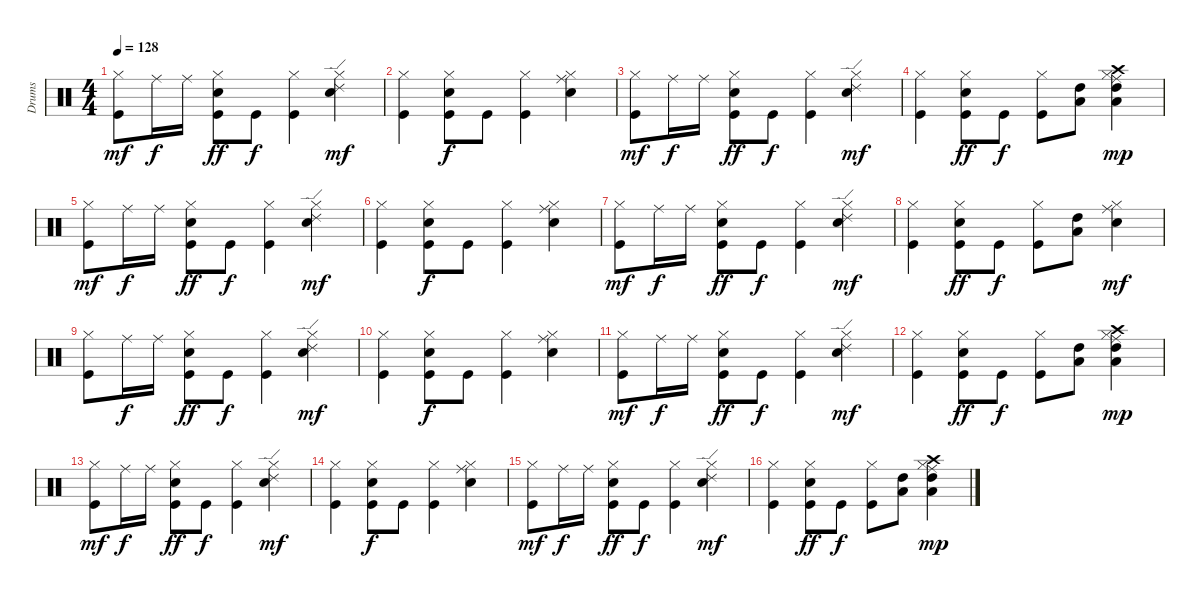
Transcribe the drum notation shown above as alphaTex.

\track ("Drums               " "Drums     ") {instrument percussion}
\staff {score}
\articulation defaults
\ts (4 4)
\tempo 128
\clef neutral
\ks c
("Hi-Hat (closed)" "Kick (hit)").8{dy mf} "Ride (middle)".16{dy f} "Ride (middle)".16 ("Hi-Hat (closed)" "Electric Snare (hit)" "Kick (hit)").8{dy ff} "Kick (hit)".8{dy f} ("Hi-Hat (closed)" "Kick (hit)").4 ("Ride (edge) 2" "Hi-Hat (closed)" "Electric Snare (hit)").4{dy mf} |
("Hi-Hat (closed)" "Kick (hit)").4 ("Hi-Hat (closed)" "Electric Snare (hit)" "Kick (hit)").8{dy f} "Kick (hit)".8 ("Hi-Hat (closed)" "Kick (hit)").4 ("Ride (middle)" "Hi-Hat (closed)" "Electric Snare (hit)").4 |
("Hi-Hat (closed)" "Kick (hit)").8{dy mf} "Ride (middle)".16{dy f} "Ride (middle)".16 ("Hi-Hat (closed)" "Electric Snare (hit)" "Kick (hit)").8{dy ff} "Kick (hit)".8{dy f} ("Hi-Hat (closed)" "Kick (hit)").4 ("Ride (edge) 2" "Hi-Hat (closed)" "Electric Snare (hit)").4{dy mf} |
("Hi-Hat (closed)" "Kick (hit)").4 ("Hi-Hat (closed)" "Electric Snare (hit)" "Kick (hit)").8{dy ff} "Kick (hit)".8{dy f} ("Hi-Hat (closed)" "Kick (hit)").8 ("High Tom (hit)" "Low Tom (hit)").8 ("Ride (middle)" "Hi-Hat (closed)" "High Tom (hit)" "Low Tom (hit)" "Crash high (hit)").4{dy mp} |
("Hi-Hat (closed)" "Kick (hit)").8{dy mf} "Ride (middle)".16{dy f} "Ride (middle)".16 ("Hi-Hat (closed)" "Electric Snare (hit)" "Kick (hit)").8{dy ff} "Kick (hit)".8{dy f} ("Hi-Hat (closed)" "Kick (hit)").4 ("Ride (edge) 2" "Hi-Hat (closed)" "Electric Snare (hit)").4{dy mf} |
("Hi-Hat (closed)" "Kick (hit)").4 ("Hi-Hat (closed)" "Electric Snare (hit)" "Kick (hit)").8{dy f} "Kick (hit)".8 ("Hi-Hat (closed)" "Kick (hit)").4 ("Ride (middle)" "Hi-Hat (closed)" "Electric Snare (hit)").4 |
("Hi-Hat (closed)" "Kick (hit)").8{dy mf} "Ride (middle)".16{dy f} "Ride (middle)".16 ("Hi-Hat (closed)" "Electric Snare (hit)" "Kick (hit)").8{dy ff} "Kick (hit)".8{dy f} ("Hi-Hat (closed)" "Kick (hit)").4 ("Ride (edge) 2" "Hi-Hat (closed)" "Electric Snare (hit)").4{dy mf} |
("Hi-Hat (closed)" "Kick (hit)").4 ("Hi-Hat (closed)" "Electric Snare (hit)" "Kick (hit)").8{dy ff} "Kick (hit)".8{dy f} ("Hi-Hat (closed)" "Kick (hit)").8 ("High Tom (hit)" "Low Tom (hit)").8 ("Ride (middle)" "Hi-Hat (closed)" "Electric Snare (hit)").4{dy mf} |
("Hi-Hat (closed)" "Kick (hit)").8 "Ride (middle)".16{dy f} "Ride (middle)".16 ("Hi-Hat (closed)" "Electric Snare (hit)" "Kick (hit)").8{dy ff} "Kick (hit)".8{dy f} ("Hi-Hat (closed)" "Kick (hit)").4 ("Ride (edge) 2" "Hi-Hat (closed)" "Electric Snare (hit)").4{dy mf} |
("Hi-Hat (closed)" "Kick (hit)").4 ("Hi-Hat (closed)" "Electric Snare (hit)" "Kick (hit)").8{dy f} "Kick (hit)".8 ("Hi-Hat (closed)" "Kick (hit)").4 ("Ride (middle)" "Hi-Hat (closed)" "Electric Snare (hit)").4 |
("Hi-Hat (closed)" "Kick (hit)").8{dy mf} "Ride (middle)".16{dy f} "Ride (middle)".16 ("Hi-Hat (closed)" "Electric Snare (hit)" "Kick (hit)").8{dy ff} "Kick (hit)".8{dy f} ("Hi-Hat (closed)" "Kick (hit)").4 ("Ride (edge) 2" "Hi-Hat (closed)" "Electric Snare (hit)").4{dy mf} |
("Hi-Hat (closed)" "Kick (hit)").4 ("Hi-Hat (closed)" "Electric Snare (hit)" "Kick (hit)").8{dy ff} "Kick (hit)".8{dy f} ("Hi-Hat (closed)" "Kick (hit)").8 ("High Tom (hit)" "Low Tom (hit)").8 ("Ride (middle)" "Hi-Hat (closed)" "High Tom (hit)" "Low Tom (hit)" "Crash high (hit)").4{dy mp} |
("Hi-Hat (closed)" "Kick (hit)").8{dy mf} "Ride (middle)".16{dy f} "Ride (middle)".16 ("Hi-Hat (closed)" "Electric Snare (hit)" "Kick (hit)").8{dy ff} "Kick (hit)".8{dy f} ("Hi-Hat (closed)" "Kick (hit)").4 ("Ride (edge) 2" "Hi-Hat (closed)" "Electric Snare (hit)").4{dy mf} |
("Hi-Hat (closed)" "Kick (hit)").4 ("Hi-Hat (closed)" "Electric Snare (hit)" "Kick (hit)").8{dy f} "Kick (hit)".8 ("Hi-Hat (closed)" "Kick (hit)").4 ("Ride (middle)" "Hi-Hat (closed)" "Electric Snare (hit)").4 |
("Hi-Hat (closed)" "Kick (hit)").8{dy mf} "Ride (middle)".16{dy f} "Ride (middle)".16 ("Hi-Hat (closed)" "Electric Snare (hit)" "Kick (hit)").8{dy ff} "Kick (hit)".8{dy f} ("Hi-Hat (closed)" "Kick (hit)").4 ("Ride (edge) 2" "Hi-Hat (closed)" "Electric Snare (hit)").4{dy mf} |
("Hi-Hat (closed)" "Kick (hit)").4 ("Hi-Hat (closed)" "Electric Snare (hit)" "Kick (hit)").8{dy ff} "Kick (hit)".8{dy f} ("Hi-Hat (closed)" "Kick (hit)").8 ("High Tom (hit)" "Low Tom (hit)").8 ("Ride (middle)" "Hi-Hat (closed)" "High Tom (hit)" "Low Tom (hit)" "Crash high (hit)").4{dy mp}
